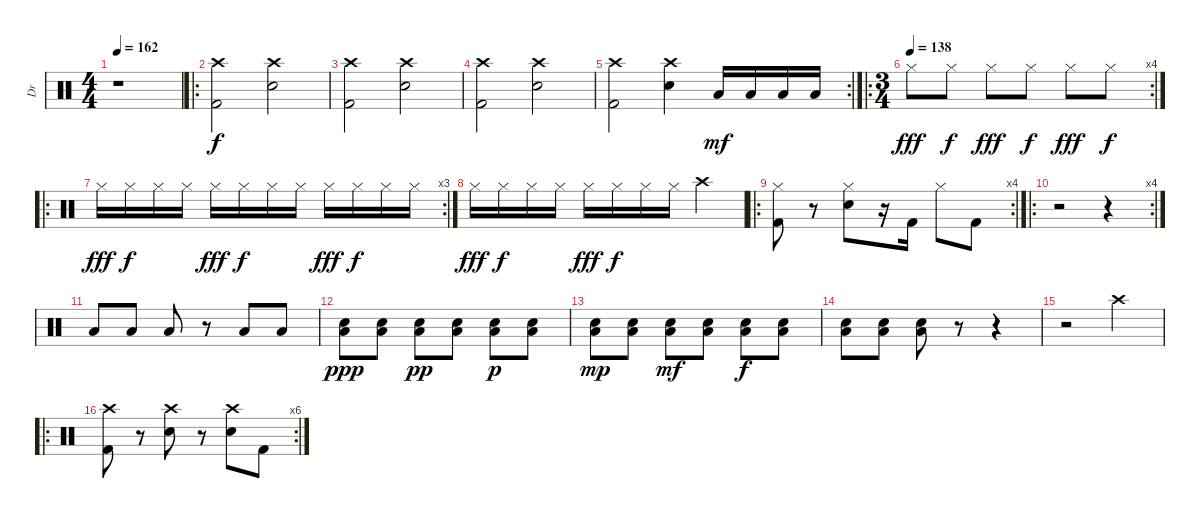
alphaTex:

\track ("Dr" "Dr") {instrument percussion}
\staff {score}
\articulation defaults
\ts (4 4)
\tempo 162
\clef neutral
\ks c
r.1{dy f} |
\ro
("Crash high (hit)" "Kick (hit) 2").2 ("Crash high (hit)" "Electric Snare (hit)").2 |
("Crash high (hit)" "Kick (hit) 2").2 ("Crash high (hit)" "Electric Snare (hit)").2 |
("Crash high (hit)" "Kick (hit) 2").2 ("Crash high (hit)" "Electric Snare (hit)").2 |
\rc 2
("Crash high (hit)" "Kick (hit) 2").2 ("Crash high (hit)" "Electric Snare (hit)").4 "Low Tom (hit)".16{dy mf} "Low Tom (hit)".16 "Low Tom (hit)".16 "Low Tom (hit)".16 |
\ro
\rc 4
\ts (3 4)
\tempo (138)
"Hi-Hat (closed)".8{dy fff} "Hi-Hat (closed)".8{dy f} "Hi-Hat (closed)".8{dy fff} "Hi-Hat (closed)".8{dy f} "Hi-Hat (closed)".8{dy fff} "Hi-Hat (closed)".8{dy f} |
\ro
\rc 3 "Hi-Hat (closed)".16{dy fff} "Hi-Hat (closed)".16{dy f} "Hi-Hat (closed)".16 "Hi-Hat (closed)".16 "Hi-Hat (closed)".16{dy fff} "Hi-Hat (closed)".16{dy f} "Hi-Hat (closed)".16 "Hi-Hat (closed)".16 "Hi-Hat (closed)".16{dy fff} "Hi-Hat (closed)".16{dy f} "Hi-Hat (closed)".16 "Hi-Hat (closed)".16
|
"Hi-Hat (closed)".16{dy fff} "Hi-Hat (closed)".16{dy f} "Hi-Hat (closed)".16 "Hi-Hat (closed)".16 "Hi-Hat (closed)".16{dy fff} "Hi-Hat (closed)".16{dy f} "Hi-Hat (closed)".16 "Hi-Hat (closed)".16 "Crash high (hit)".4 |
\ro
\rc 4
("Hi-Hat (closed)" "Kick (hit) 2").8 r.8 ("Hi-Hat (closed)" "Electric Snare (hit)").8 r.16 "Kick (hit) 2".16 "Hi-Hat (closed)".8 "Kick (hit) 2".8 |
\ro
\rc 4
r.2 r.4 |
"Low Tom (hit)".8 "Low Tom (hit)".8 "Low Tom (hit)".8 r.8 "Low Tom (hit)".8 "Low Tom (hit)".8 |
("Low Tom (hit)" "Electric Snare (hit)").8{dy ppp} ("Low Tom (hit)" "Electric Snare (hit)").8 ("Low Tom (hit)" "Electric Snare (hit)").8{dy pp} ("Low Tom (hit)" "Electric Snare (hit)").8 ("Low Tom (hit)" "Electric Snare (hit)").8{dy p} ("Low Tom (hit)" "Electric Snare (hit)").8 |
("Low Tom (hit)" "Electric Snare (hit)").8{dy mp} ("Low Tom (hit)" "Electric Snare (hit)").8 ("Low Tom (hit)" "Electric Snare (hit)").8{dy mf} ("Low Tom (hit)" "Electric Snare (hit)").8 ("Low Tom (hit)" "Electric Snare (hit)").8{dy f} ("Low Tom (hit)" "Electric Snare (hit)").8 |
("Low Tom (hit)" "Electric Snare (hit)").8 ("Low Tom (hit)" "Electric Snare (hit)").8 ("Low Tom (hit)" "Electric Snare (hit)").8 r.8 r.4 |
r.2 "Crash high (hit)".4 |
\ro
\rc 6
("Crash high (hit)" "Kick (hit) 2").8 r.8 ("Crash high (hit)" "Electric Snare (hit)").8 r.8 ("Crash high (hit)" "Electric Snare (hit)").8 "Kick (hit) 2".8
